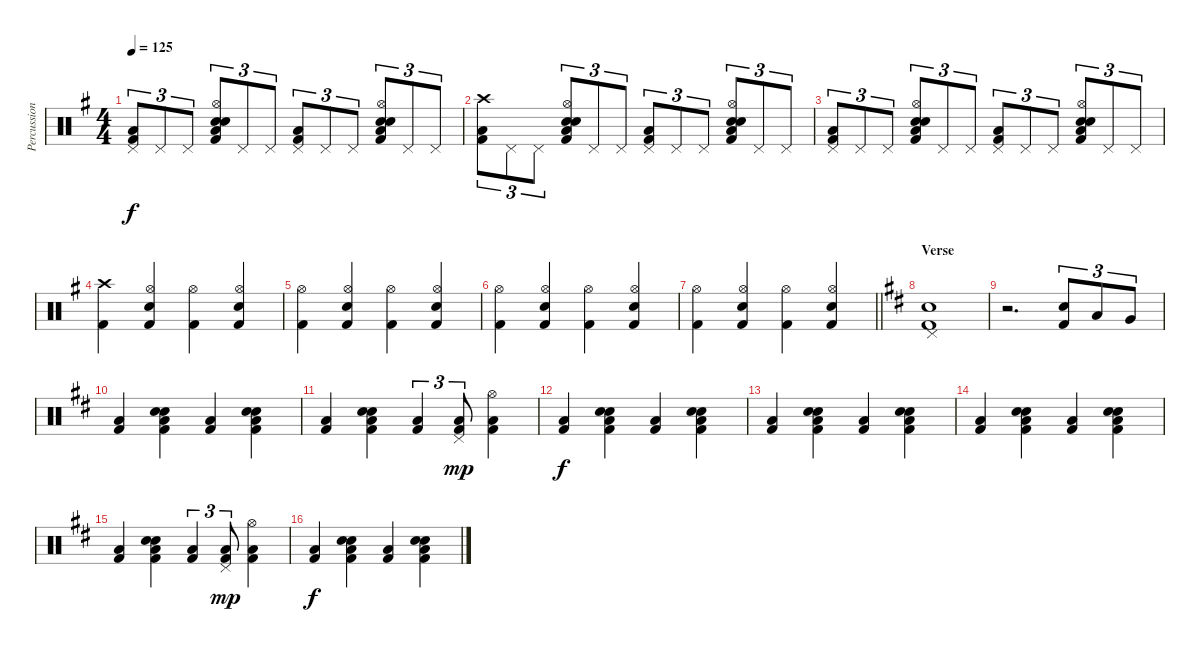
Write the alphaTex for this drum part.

\track ("Percussion" "Percussion") {instrument percussion}
\staff {score}
\articulation defaults
\ts (4 4)
\tempo 125
\clef neutral
\ks eminor
("Pedal Hi-Hat (hit)" "Low Floor Tom (hit)" "Kick (hit) 2").8{tu (3 2) dy f} "Pedal Hi-Hat (hit)".8{tu (3 2)} "Pedal Hi-Hat (hit)".8{tu (3 2)} ("Hi-Hat (open)" "Electric Snare (hit)" "Hand Clap (hit)" "Low Floor Tom (hit)" "Kick (hit) 2").8{tu (3 2)} "Pedal Hi-Hat (hit)".8{tu (3 2)} "Pedal Hi-Hat (hit)".8{tu (3 2)} ("Pedal Hi-Hat (hit)" "Low Floor Tom (hit)" "Kick (hit) 2").8{tu (3 2)} "Pedal Hi-Hat (hit)".8{tu (3 2)} "Pedal Hi-Hat (hit)".8{tu (3 2)} ("Hi-Hat (open)" "Electric Snare (hit)" "Hand Clap (hit)" "Low Floor Tom (hit)" "Kick (hit) 2").8{tu (3 2)} "Pedal Hi-Hat (hit)".8{tu (3 2)} "Pedal Hi-Hat (hit)".8{tu (3 2)} |
("Crash high (hit)" "Low Floor Tom (hit)" "Kick (hit) 2").8{tu (3 2)} "Pedal Hi-Hat (hit)".8{tu (3 2)} "Pedal Hi-Hat (hit)".8{tu (3 2)} ("Hi-Hat (open)" "Electric Snare (hit)" "Hand Clap (hit)" "Low Floor Tom (hit)" "Kick (hit) 2").8{tu (3 2)} "Pedal Hi-Hat (hit)".8{tu (3 2)} "Pedal Hi-Hat (hit)".8{tu (3 2)} ("Pedal Hi-Hat (hit)" "Low Floor Tom (hit)" "Kick (hit) 2").8{tu (3 2)} "Pedal Hi-Hat (hit)".8{tu (3 2)} "Pedal Hi-Hat (hit)".8{tu (3 2)} ("Hi-Hat (open)" "Electric Snare (hit)" "Hand Clap (hit)" "Low Floor Tom (hit)" "Kick (hit) 2").8{tu (3 2)} "Pedal Hi-Hat (hit)".8{tu (3 2)} "Pedal Hi-Hat (hit)".8{tu (3 2)} |
("Pedal Hi-Hat (hit)" "Low Floor Tom (hit)" "Kick (hit) 2").8{tu (3 2)} "Pedal Hi-Hat (hit)".8{tu (3 2)} "Pedal Hi-Hat (hit)".8{tu (3 2)} ("Hi-Hat (open)" "Electric Snare (hit)" "Hand Clap (hit)" "Low Floor Tom (hit)" "Kick (hit) 2").8{tu (3 2)} "Pedal Hi-Hat (hit)".8{tu (3 2)} "Pedal Hi-Hat (hit)".8{tu (3 2)} ("Pedal Hi-Hat (hit)" "Low Floor Tom (hit)" "Kick (hit) 2").8{tu (3 2)} "Pedal Hi-Hat (hit)".8{tu (3 2)} "Pedal Hi-Hat (hit)".8{tu (3 2)} ("Hi-Hat (open)" "Electric Snare (hit)" "Hand Clap (hit)" "Low Floor Tom (hit)" "Kick (hit) 2").8{tu (3 2)} "Pedal Hi-Hat (hit)".8{tu (3 2)} "Pedal Hi-Hat (hit)".8{tu (3 2)} |
("Crash high (hit)" "Kick (hit) 2").4 ("Hi-Hat (open)" "Electric Snare (hit)" "Kick (hit) 2").4 ("Hi-Hat (open)" "Kick (hit) 2").4 ("Hi-Hat (open)" "Electric Snare (hit)" "Kick (hit) 2").4 |
("Hi-Hat (open)" "Kick (hit) 2").4 ("Hi-Hat (open)" "Electric Snare (hit)" "Kick (hit) 2").4 ("Hi-Hat (open)" "Kick (hit) 2").4 ("Hi-Hat (open)" "Electric Snare (hit)" "Kick (hit) 2").4 |
("Hi-Hat (open)" "Kick (hit) 2").4 ("Hi-Hat (open)" "Electric Snare (hit)" "Kick (hit) 2").4 ("Hi-Hat (open)" "Kick (hit) 2").4 ("Hi-Hat (open)" "Electric Snare (hit)" "Kick (hit) 2").4 |
\barLineRight lightlight
("Hi-Hat (open)" "Kick (hit) 2").4 ("Hi-Hat (open)" "Electric Snare (hit)" "Kick (hit) 2").4 ("Hi-Hat (open)" "Kick (hit) 2").4 ("Hi-Hat (open)" "Electric Snare (hit)" "Kick (hit) 2").4 |
\section ("" "Verse")
\ks bminor
("Pedal Hi-Hat (hit)" "Electric Snare (hit)" "Kick (hit) 2").1 |
r.2{d} ("Electric Snare (hit)" "Kick (hit) 2").8{tu (3 2)} "Low Tom (hit)".8{tu (3 2)} "Very Low Tom (hit)".8{tu (3 2)} |
("Low Floor Tom (hit)" "Kick (hit) 2").4 ("Electric Snare (hit)" "Hand Clap (hit)" "Low Floor Tom (hit)" "Kick (hit) 2").4 ("Low Floor Tom (hit)" "Kick (hit) 2").4 ("Electric Snare (hit)" "Hand Clap (hit)" "Low Floor Tom (hit)" "Kick (hit) 2").4 |
("Low Floor Tom (hit)" "Kick (hit) 2").4 ("Electric Snare (hit)" "Hand Clap (hit)" "Low Floor Tom (hit)" "Kick (hit) 2").4 ("Low Floor Tom (hit)" "Kick (hit) 2").4{tu (3 2)} ("Pedal Hi-Hat (hit)" "Low Floor Tom (hit)" "Kick (hit) 2").8{tu (3 2) dy mp} ("Hi-Hat (open)" "Low Floor Tom (hit)" "Kick (hit) 2").4 |
("Low Floor Tom (hit)" "Kick (hit) 2").4{dy f} ("Electric Snare (hit)" "Hand Clap (hit)" "Low Floor Tom (hit)" "Kick (hit) 2").4 ("Low Floor Tom (hit)" "Kick (hit) 2").4 ("Electric Snare (hit)" "Hand Clap (hit)" "Low Floor Tom (hit)" "Kick (hit) 2").4 |
("Low Floor Tom (hit)" "Kick (hit) 2").4 ("Electric Snare (hit)" "Hand Clap (hit)" "Low Floor Tom (hit)" "Kick (hit) 2").4 ("Low Floor Tom (hit)" "Kick (hit) 2").4 ("Electric Snare (hit)" "Hand Clap (hit)" "Low Floor Tom (hit)" "Kick (hit) 2").4 |
("Low Floor Tom (hit)" "Kick (hit) 2").4 ("Electric Snare (hit)" "Hand Clap (hit)" "Low Floor Tom (hit)" "Kick (hit) 2").4 ("Low Floor Tom (hit)" "Kick (hit) 2").4 ("Electric Snare (hit)" "Hand Clap (hit)" "Low Floor Tom (hit)" "Kick (hit) 2").4 |
("Low Floor Tom (hit)" "Kick (hit) 2").4 ("Electric Snare (hit)" "Hand Clap (hit)" "Low Floor Tom (hit)" "Kick (hit) 2").4 ("Low Floor Tom (hit)" "Kick (hit) 2").4{tu (3 2)} ("Pedal Hi-Hat (hit)" "Low Floor Tom (hit)" "Kick (hit) 2").8{tu (3 2) dy mp} ("Hi-Hat (open)" "Low Floor Tom (hit)" "Kick (hit) 2").4 |
("Low Floor Tom (hit)" "Kick (hit) 2").4{dy f} ("Electric Snare (hit)" "Hand Clap (hit)" "Low Floor Tom (hit)" "Kick (hit) 2").4 ("Low Floor Tom (hit)" "Kick (hit) 2").4 ("Electric Snare (hit)" "Hand Clap (hit)" "Low Floor Tom (hit)" "Kick (hit) 2").4
